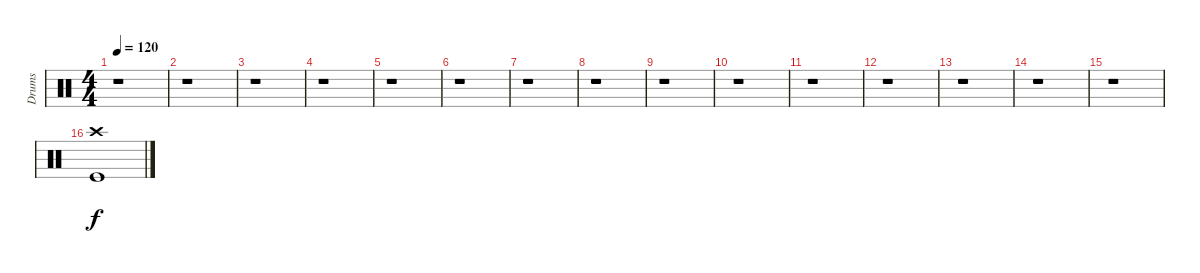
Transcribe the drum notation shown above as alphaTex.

\track ("Drums" "Drums") {instrument percussion}
\staff {score}
\articulation defaults
\ts (4 4)
\tempo 120
\clef neutral
\ks c
r.1{dy f} |
r.1 |
r.1 |
r.1 |
r.1 |
r.1 |
r.1 |
r.1 |
r.1 |
r.1 |
r.1 |
r.1 |
r.1 |
r.1 |
r.1 |
("Crash high (hit)" "Kick (hit)").1
